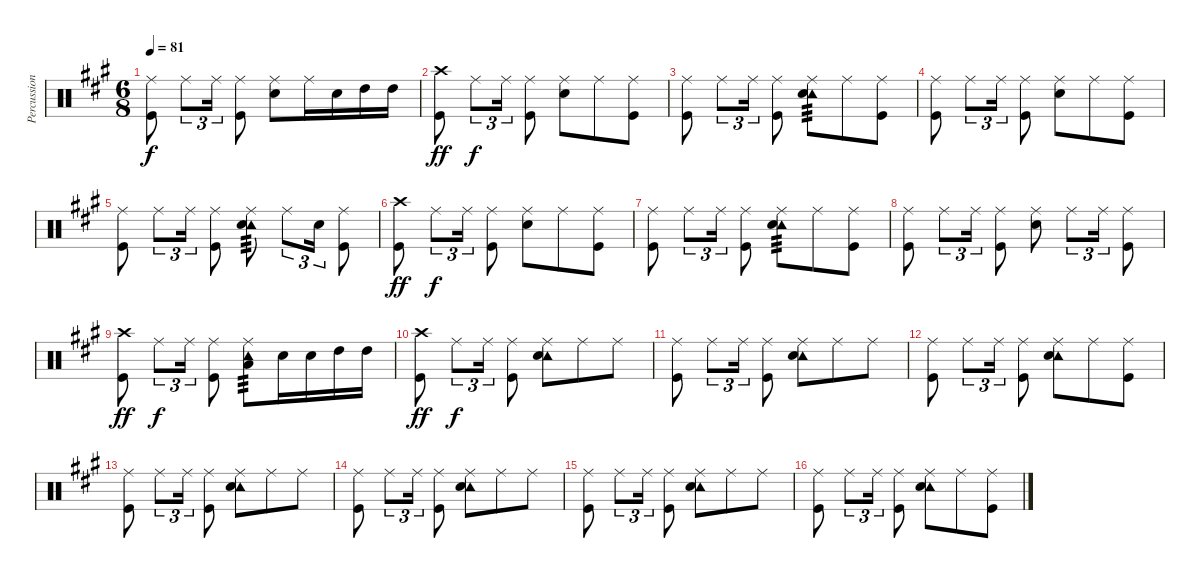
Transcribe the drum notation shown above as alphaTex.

\track ("Percussion" "Percussion") {instrument percussion}
\staff {score}
\articulation defaults
\ts (6 8)
\tempo 81
\clef neutral
\ks a
("Ride (middle)" "Kick (hit)").8{dy f} "Ride (middle)".8{tu (3 2)} "Ride (middle)".16{tu (3 2)} ("Ride (middle)" "Kick (hit)").8 ("Ride (middle)" "Snare (hit) 2").8 "Ride (middle)".16 "Snare (hit) 2".16 "High Tom (hit)".16 "High Tom (hit)".16 |
("Crash high (hit)" "Kick (hit)").8{dy ff} "Ride (middle)".8{tu (3 2) dy f} "Ride (middle)".16{tu (3 2)} ("Ride (middle)" "Kick (hit)").8 ("Ride (middle)" "Snare (hit) 2").8 "Ride (middle)".8 ("Ride (middle)" "Kick (hit)").8 |
("Ride (middle)" "Kick (hit)").8 "Ride (middle)".8{tu (3 2)} "Ride (middle)".16{tu (3 2)} ("Ride (middle)" "Kick (hit)").8 ("Ride (middle)" "Tambourine (hit)" "Snare (hit) 2").8{tp 3} "Ride (middle)".8 ("Ride (middle)" "Kick (hit)").8 |
("Ride (middle)" "Kick (hit)").8 "Ride (middle)".8{tu (3 2)} "Ride (middle)".16{tu (3 2)} ("Ride (middle)" "Kick (hit)").8 ("Ride (middle)" "Snare (hit) 2").8 "Ride (middle)".8 ("Ride (middle)" "Kick (hit)").8 |
("Ride (middle)" "Kick (hit)").8 "Ride (middle)".8{tu (3 2)} "Ride (middle)".16{tu (3 2)} ("Ride (middle)" "Kick (hit)").8 ("Ride (middle)" "Tambourine (hit)" "Snare (hit) 2").8{tp 3} "Ride (middle)".8{tu (3 2)} "Snare (hit) 2".16{tu (3 2)} ("Ride (middle)" "Kick (hit)").8 |
("Crash high (hit)" "Kick (hit)").8{dy ff} "Ride (middle)".8{tu (3 2) dy f} "Ride (middle)".16{tu (3 2)} ("Ride (middle)" "Kick (hit)").8 ("Ride (middle)" "Snare (hit) 2").8 "Ride (middle)".8 ("Ride (middle)" "Kick (hit)").8 |
("Ride (middle)" "Kick (hit)").8 "Ride (middle)".8{tu (3 2)} "Ride (middle)".16{tu (3 2)} ("Ride (middle)" "Kick (hit)").8 ("Ride (middle)" "Tambourine (hit)" "Snare (hit) 2").8{tp 3} "Ride (middle)".8 ("Ride (middle)" "Kick (hit)").8 |
("Ride (middle)" "Kick (hit)").8 "Ride (middle)".8{tu (3 2)} "Ride (middle)".16{tu (3 2)} ("Ride (middle)" "Kick (hit)").8 ("Ride (middle)" "Snare (hit) 2").8 "Ride (middle)".8{tu (3 2)} "Ride (middle)".16{tu (3 2)} ("Ride (middle)" "Kick (hit)").8 |
("Crash high (hit)" "Kick (hit)").8{dy ff} "Ride (middle)".8{tu (3 2) dy f} "Ride (middle)".16{tu (3 2)} ("Ride (middle)" "Kick (hit)").8 ("Ride (middle)" "Tambourine (hit)" "Low Floor Tom (hit)").8{tp 3} "Snare (hit) 2".16 "Snare (hit) 2".16 "High Tom (hit)".16 "High Tom (hit)".16 |
("Crash high (hit)" "Kick (hit)").8{dy ff} "Ride (middle)".8{tu (3 2) dy f} "Ride (middle)".16{tu (3 2)} ("Ride (middle)" "Kick (hit)").8 ("Ride (middle)" "Tambourine (hit)" "Snare (hit) 2").8 "Ride (middle)".8 "Ride (middle)".8 |
("Ride (middle)" "Kick (hit)").8 "Ride (middle)".8{tu (3 2)} "Ride (middle)".16{tu (3 2)} ("Ride (middle)" "Kick (hit)").8 ("Ride (middle)" "Tambourine (hit)" "Snare (hit) 2").8 "Ride (middle)".8 "Ride (middle)".8 |
("Ride (middle)" "Kick (hit)").8 "Ride (middle)".8{tu (3 2)} "Ride (middle)".16{tu (3 2)} ("Ride (middle)" "Kick (hit)").8 ("Ride (middle)" "Tambourine (hit)" "Snare (hit) 2").8 "Ride (middle)".8 ("Ride (middle)" "Kick (hit)").8 |
("Ride (middle)" "Kick (hit)").8 "Ride (middle)".8{tu (3 2)} "Ride (middle)".16{tu (3 2)} ("Ride (middle)" "Kick (hit)").8 ("Ride (middle)" "Tambourine (hit)" "Snare (hit) 2").8 "Ride (middle)".8 "Ride (middle)".8 |
("Ride (middle)" "Kick (hit)").8 "Ride (middle)".8{tu (3 2)} "Ride (middle)".16{tu (3 2)} ("Ride (middle)" "Kick (hit)").8 ("Ride (middle)" "Tambourine (hit)" "Snare (hit) 2").8 "Ride (middle)".8 "Ride (middle)".8 |
("Ride (middle)" "Kick (hit)").8 "Ride (middle)".8{tu (3 2)} "Ride (middle)".16{tu (3 2)} ("Ride (middle)" "Kick (hit)").8 ("Ride (middle)" "Tambourine (hit)" "Snare (hit) 2").8 "Ride (middle)".8 "Ride (middle)".8 |
("Ride (middle)" "Kick (hit)").8 "Ride (middle)".8{tu (3 2)} "Ride (middle)".16{tu (3 2)} ("Ride (middle)" "Kick (hit)").8 ("Ride (middle)" "Tambourine (hit)" "Snare (hit) 2").8 "Ride (middle)".8 ("Ride (middle)" "Kick (hit)").8
